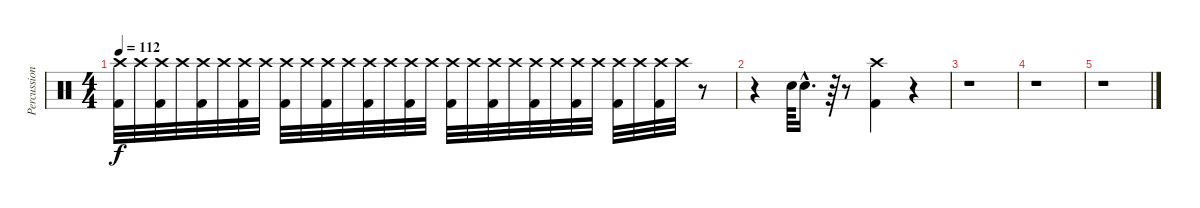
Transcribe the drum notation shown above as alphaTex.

\track ("Percussion" "Percussion") {instrument percussion}
\staff {score}
\articulation defaults
\ts (4 4)
\tempo 112
\clef neutral
\ks c
("Crash high (hit)" "Kick (hit) 2").32{dy f} "Crash high (hit)".32 ("Crash high (hit)" "Kick (hit) 2").32 "Crash high (hit)".32 ("Crash high (hit)" "Kick (hit) 2").32 "Crash high (hit)".32 ("Crash high (hit)" "Kick (hit) 2").32 "Crash high (hit)".32 ("Crash high (hit)" "Kick (hit) 2").32 "Crash high (hit)".32 ("Crash high (hit)" "Kick (hit) 2").32 "Crash high (hit)".32 ("Crash high (hit)" "Kick (hit) 2").32 "Crash high (hit)".32 ("Crash high (hit)" "Kick (hit) 2").32 "Crash high (hit)".32 ("Crash high (hit)" "Kick (hit) 2").32 "Crash high (hit)".32 ("Crash high (hit)" "Kick (hit) 2").32 "Crash high (hit)".32 ("Crash high (hit)" "Kick (hit) 2").32 "Crash high (hit)".32 ("Crash high (hit)" "Kick (hit) 2").32 "Crash high (hit)".32 ("Crash high (hit)" "Kick (hit) 2").32 "Crash high (hit)".32 ("Crash high (hit)" "Kick (hit) 2").32 "Crash high (hit)".32 r.8 |
r.4 "Snare (hit) 2".64 "Snare (hit) 2"{hac}.16{d} r.64 r.8 ("Crash high (hit)" "Kick (hit) 2").4 r.4 |
r.1 |
r.1 |
r.1
